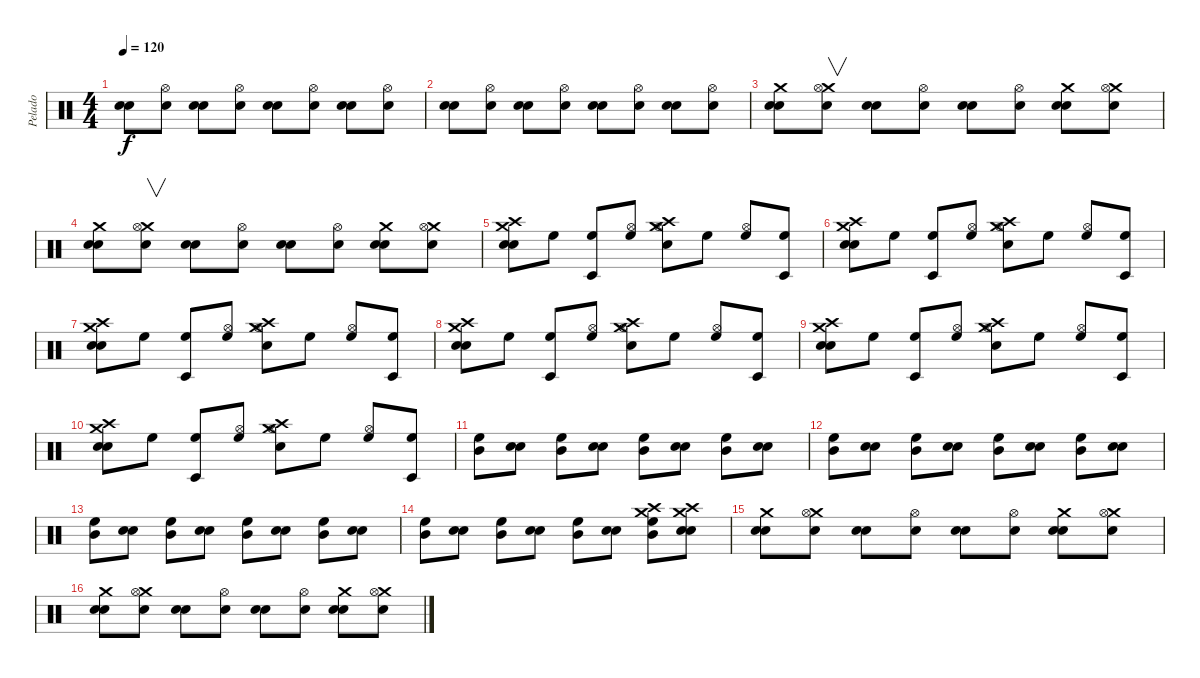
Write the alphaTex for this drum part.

\track ("Pelado" "Pelado") {instrument percussion}
\staff {score}
\articulation defaults
\ts (4 4)
\tempo 120
\clef neutral
\ks c
("Electric Snare (hit)" "Electric Snare (hit)").8{dy f} ("Hi-Hat (open)" "Electric Snare (hit)").8 ("Electric Snare (hit)" "Electric Snare (hit)").8 ("Electric Snare (hit)" "Hi-Hat (open)").8 ("Electric Snare (hit)" "Electric Snare (hit)").8 ("Electric Snare (hit)" "Hi-Hat (open)").8 ("Electric Snare (hit)" "Electric Snare (hit)").8 ("Electric Snare (hit)" "Hi-Hat (open)").8 |
("Electric Snare (hit)" "Electric Snare (hit)").8 ("Hi-Hat (open)" "Electric Snare (hit)").8 ("Electric Snare (hit)" "Electric Snare (hit)").8 ("Electric Snare (hit)" "Hi-Hat (open)").8 ("Electric Snare (hit)" "Electric Snare (hit)").8 ("Electric Snare (hit)" "Hi-Hat (open)").8 ("Electric Snare (hit)" "Electric Snare (hit)").8 ("Electric Snare (hit)" "Hi-Hat (open)").8 |
("Crash medium (hit)" "Electric Snare (hit)" "Electric Snare (hit)").8 ("Crash medium (hit)" "Hi-Hat (open)" "Electric Snare (hit)").8{v} ("Electric Snare (hit)" "Electric Snare (hit)").8 ("Electric Snare (hit)" "Hi-Hat (open)").8 ("Electric Snare (hit)" "Electric Snare (hit)").8 ("Electric Snare (hit)" "Hi-Hat (open)").8 ("Crash medium (hit)" "Electric Snare (hit)" "Electric Snare (hit)").8 ("Crash medium (hit)" "Electric Snare (hit)" "Hi-Hat (open)").8 |
("Crash medium (hit)" "Electric Snare (hit)" "Electric Snare (hit)").8 ("Crash medium (hit)" "Hi-Hat (open)" "Electric Snare (hit)").8{v} ("Electric Snare (hit)" "Electric Snare (hit)").8 ("Electric Snare (hit)" "Hi-Hat (open)").8 ("Electric Snare (hit)" "Electric Snare (hit)").8 ("Electric Snare (hit)" "Hi-Hat (open)").8 ("Crash medium (hit)" "Electric Snare (hit)" "Electric Snare (hit)").8 ("Crash medium (hit)" "Electric Snare (hit)" "Hi-Hat (open)").8 |
("Crash high (hit)" "Crash medium (hit)" "Electric Snare (hit)" "Electric Snare (hit)").8 "High Floor Tom (hit)".8 ("High Floor Tom (hit)" "Timbale low (hit)").8 ("High Floor Tom (hit)" "Hi-Hat (open)").8 ("Crash high (hit)" "Crash medium (hit)" "Electric Snare (hit)" "Hi-Hat (open)").8 "High Floor Tom (hit)".8 ("High Floor Tom (hit)" "Hi-Hat (open)").8 ("High Floor Tom (hit)" "Timbale low (hit)").8 |
("Crash high (hit)" "Crash medium (hit)" "Electric Snare (hit)" "Electric Snare (hit)").8 "High Floor Tom (hit)".8 ("High Floor Tom (hit)" "Timbale low (hit)").8 ("High Floor Tom (hit)" "Hi-Hat (open)").8 ("Crash high (hit)" "Crash medium (hit)" "Electric Snare (hit)" "Hi-Hat (open)").8 "High Floor Tom (hit)".8 ("High Floor Tom (hit)" "Hi-Hat (open)").8 ("High Floor Tom (hit)" "Timbale low (hit)").8 |
("Crash high (hit)" "Crash medium (hit)" "Electric Snare (hit)" "Electric Snare (hit)").8 "High Floor Tom (hit)".8 ("High Floor Tom (hit)" "Timbale low (hit)").8 ("High Floor Tom (hit)" "Hi-Hat (open)").8 ("Crash high (hit)" "Crash medium (hit)" "Electric Snare (hit)" "Hi-Hat (open)").8 "High Floor Tom (hit)".8 ("High Floor Tom (hit)" "Hi-Hat (open)").8 ("High Floor Tom (hit)" "Timbale low (hit)").8 |
("Crash high (hit)" "Crash medium (hit)" "Electric Snare (hit)" "Electric Snare (hit)").8 "High Floor Tom (hit)".8 ("High Floor Tom (hit)" "Timbale low (hit)").8 ("High Floor Tom (hit)" "Hi-Hat (open)").8 ("Crash high (hit)" "Crash medium (hit)" "Electric Snare (hit)" "Hi-Hat (open)").8 "High Floor Tom (hit)".8 ("High Floor Tom (hit)" "Hi-Hat (open)").8 ("High Floor Tom (hit)" "Timbale low (hit)").8 |
("Crash high (hit)" "Crash medium (hit)" "Electric Snare (hit)" "Electric Snare (hit)").8 "High Floor Tom (hit)".8 ("High Floor Tom (hit)" "Timbale low (hit)").8 ("High Floor Tom (hit)" "Hi-Hat (open)").8 ("Crash high (hit)" "Crash medium (hit)" "Electric Snare (hit)" "Hi-Hat (open)").8 "High Floor Tom (hit)".8 ("High Floor Tom (hit)" "Hi-Hat (open)").8 ("High Floor Tom (hit)" "Timbale low (hit)").8 |
("Crash high (hit)" "Crash medium (hit)" "Electric Snare (hit)" "Electric Snare (hit)").8 "High Floor Tom (hit)".8 ("High Floor Tom (hit)" "Timbale low (hit)").8 ("High Floor Tom (hit)" "Hi-Hat (open)").8 ("Crash high (hit)" "Crash medium (hit)" "Electric Snare (hit)" "Hi-Hat (open)").8 "High Floor Tom (hit)".8 ("High Floor Tom (hit)" "Hi-Hat (open)").8 ("High Floor Tom (hit)" "Timbale low (hit)").8 |
("High Floor Tom (hit)" "Mid Tom (hit)").8 ("Electric Snare (hit)" "Electric Snare (hit)").8 ("High Floor Tom (hit)" "Mid Tom (hit)").8 ("Electric Snare (hit)" "Electric Snare (hit)").8 ("High Floor Tom (hit)" "Mid Tom (hit)").8 ("Electric Snare (hit)" "Electric Snare (hit)").8 ("High Floor Tom (hit)" "Mid Tom (hit)").8 ("Electric Snare (hit)" "Electric Snare (hit)").8 |
("High Floor Tom (hit)" "Mid Tom (hit)").8 ("Electric Snare (hit)" "Electric Snare (hit)").8 ("High Floor Tom (hit)" "Mid Tom (hit)").8 ("Electric Snare (hit)" "Electric Snare (hit)").8 ("High Floor Tom (hit)" "Mid Tom (hit)").8 ("Electric Snare (hit)" "Electric Snare (hit)").8 ("High Floor Tom (hit)" "Mid Tom (hit)").8 ("Electric Snare (hit)" "Electric Snare (hit)").8 |
("High Floor Tom (hit)" "Mid Tom (hit)").8 ("Electric Snare (hit)" "Electric Snare (hit)").8 ("High Floor Tom (hit)" "Mid Tom (hit)").8 ("Electric Snare (hit)" "Electric Snare (hit)").8 ("High Floor Tom (hit)" "Mid Tom (hit)").8 ("Electric Snare (hit)" "Electric Snare (hit)").8 ("High Floor Tom (hit)" "Mid Tom (hit)").8 ("Electric Snare (hit)" "Electric Snare (hit)").8 |
("High Floor Tom (hit)" "Mid Tom (hit)").8 ("Electric Snare (hit)" "Electric Snare (hit)").8 ("High Floor Tom (hit)" "Mid Tom (hit)").8 ("Electric Snare (hit)" "Electric Snare (hit)").8 ("High Floor Tom (hit)" "Mid Tom (hit)").8 ("Electric Snare (hit)" "Electric Snare (hit)").8 ("Crash high (hit)" "Crash medium (hit)" "High Floor Tom (hit)" "Mid Tom (hit)").8 ("Crash high (hit)" "Crash medium (hit)" "Electric Snare (hit)" "Electric Snare (hit)").8 |
("Crash medium (hit)" "Electric Snare (hit)" "Electric Snare (hit)").8 ("Crash medium (hit)" "Hi-Hat (open)" "Electric Snare (hit)").8 ("Electric Snare (hit)" "Electric Snare (hit)").8 ("Electric Snare (hit)" "Hi-Hat (open)").8 ("Electric Snare (hit)" "Electric Snare (hit)").8 ("Electric Snare (hit)" "Hi-Hat (open)").8 ("Crash medium (hit)" "Electric Snare (hit)" "Electric Snare (hit)").8 ("Crash medium (hit)" "Electric Snare (hit)" "Hi-Hat (open)").8 |
("Crash medium (hit)" "Electric Snare (hit)" "Electric Snare (hit)").8 ("Crash medium (hit)" "Hi-Hat (open)" "Electric Snare (hit)").8 ("Electric Snare (hit)" "Electric Snare (hit)").8 ("Electric Snare (hit)" "Hi-Hat (open)").8 ("Electric Snare (hit)" "Electric Snare (hit)").8 ("Electric Snare (hit)" "Hi-Hat (open)").8 ("Crash medium (hit)" "Electric Snare (hit)" "Electric Snare (hit)").8 ("Crash medium (hit)" "Electric Snare (hit)" "Hi-Hat (open)").8
